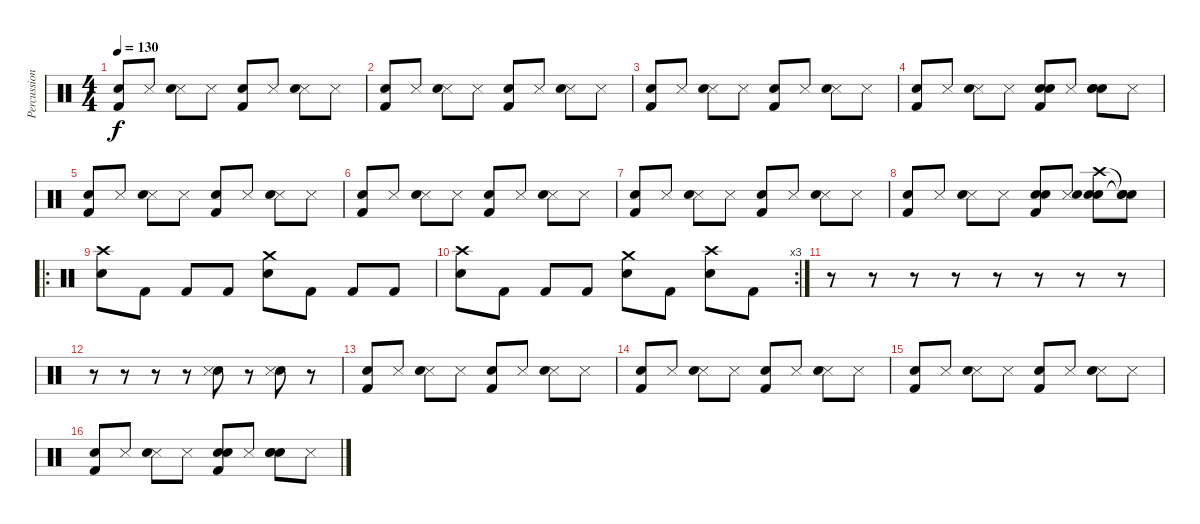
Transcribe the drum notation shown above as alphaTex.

\track ("Percussions" "Percussion") {instrument percussion}
\staff {score}
\articulation defaults
\ts (4 4)
\tempo 130
\clef neutral
\ks c
("Metronome (bell)" "Kick (hit) 2").8{dy f} "Snare (side stick) 3".8 ("Snare (side stick) 3" "Snare (hit) 2").8 "Snare (side stick) 3".8 ("Metronome (bell)" "Kick (hit) 2").8 "Snare (side stick) 3".8 ("Snare (side stick) 3" "Snare (hit) 2").8 "Snare (side stick) 3".8 |
("Metronome (bell)" "Kick (hit) 2").8 "Snare (side stick) 3".8 ("Snare (side stick) 3" "Snare (hit) 2").8 "Snare (side stick) 3".8 ("Metronome (bell)" "Kick (hit) 2").8 "Snare (side stick) 3".8 ("Snare (side stick) 3" "Snare (hit) 2").8 "Snare (side stick) 3".8 |
("Metronome (bell)" "Kick (hit) 2").8 "Snare (side stick) 3".8 ("Snare (side stick) 3" "Snare (hit) 2").8 "Snare (side stick) 3".8 ("Metronome (bell)" "Kick (hit) 2").8 "Snare (side stick) 3".8 ("Snare (side stick) 3" "Snare (hit) 2").8 "Snare (side stick) 3".8 |
("Metronome (bell)" "Kick (hit) 2").8 "Snare (side stick) 3".8 ("Snare (side stick) 3" "Snare (hit) 2").8 "Snare (side stick) 3".8 ("Metronome (bell)" "Metronome (bell)" "Kick (hit) 2").8 "Snare (side stick) 3".8 ("Metronome (bell)" "Metronome (bell)" "Snare (hit) 2").8 "Snare (side stick) 3".8 |
("Metronome (bell)" "Kick (hit) 2").8 "Snare (side stick) 3".8 ("Snare (side stick) 3" "Snare (hit) 2").8 "Snare (side stick) 3".8 ("Metronome (bell)" "Kick (hit) 2").8 "Snare (side stick) 3".8 ("Snare (side stick) 3" "Snare (hit) 2").8 "Snare (side stick) 3".8 |
("Metronome (bell)" "Kick (hit) 2").8 "Snare (side stick) 3".8 ("Snare (side stick) 3" "Snare (hit) 2").8 "Snare (side stick) 3".8 ("Metronome (bell)" "Kick (hit) 2").8 "Snare (side stick) 3".8 ("Snare (side stick) 3" "Snare (hit) 2").8 "Snare (side stick) 3".8 |
("Metronome (bell)" "Kick (hit) 2").8 "Snare (side stick) 3".8 ("Snare (side stick) 3" "Snare (hit) 2").8 "Snare (side stick) 3".8 ("Metronome (bell)" "Kick (hit) 2").8 "Snare (side stick) 3".8 ("Snare (side stick) 3" "Snare (hit) 2").8 "Snare (side stick) 3".8 |
("Metronome (bell)" "Kick (hit) 2").8 "Snare (side stick) 3".8 ("Snare (side stick) 3" "Snare (hit) 2").8 "Snare (side stick) 3".8 ("Metronome (bell)" "Metronome (bell)" "Kick (hit) 2").8 ("Snare (side stick) 3" "Snare (hit) 2").8 ("Crash high (hit)" "Metronome (bell)" "Snare (hit) 2").8 ("Snare (hit)"{t} "Snare (hit)"{t} "Snare (hit)"{t}).8 |
\ro
("Crash high (hit)" "Snare (hit) 2").8 "Kick (hit) 2".8 "Kick (hit) 2".8 "Kick (hit) 2".8 ("Crash medium (hit)" "Snare (hit) 2").8 "Kick (hit) 2".8 "Kick (hit) 2".8 "Kick (hit) 2".8 |
\rc 3
("Crash high (hit)" "Snare (hit) 2").8 "Kick (hit) 2".8 "Kick (hit) 2".8 "Kick (hit) 2".8 ("Crash medium (hit)" "Snare (hit) 2").8 "Kick (hit) 2".8 ("Crash high (hit)" "Snare (hit) 2").8 "Kick (hit) 2".8 |
r.8 r.8 r.8 r.8 r.8 r.8 r.8 r.8 |
r.8 r.8 r.8 r.8 ("Metronome (bell)" "Snare (side stick) 3").8 r.8 ("Metronome (bell)" "Snare (side stick) 3").8 r.8 |
("Metronome (bell)" "Kick (hit) 2").8 "Snare (side stick) 3".8 ("Snare (side stick) 3" "Snare (hit) 2").8 "Snare (side stick) 3".8 ("Metronome (bell)" "Kick (hit) 2").8 "Snare (side stick) 3".8 ("Snare (side stick) 3" "Snare (hit) 2").8 "Snare (side stick) 3".8 |
("Metronome (bell)" "Kick (hit) 2").8 "Snare (side stick) 3".8 ("Snare (side stick) 3" "Snare (hit) 2").8 "Snare (side stick) 3".8 ("Metronome (bell)" "Kick (hit) 2").8 "Snare (side stick) 3".8 ("Snare (side stick) 3" "Snare (hit) 2").8 "Snare (side stick) 3".8 |
("Metronome (bell)" "Kick (hit) 2").8 "Snare (side stick) 3".8 ("Snare (side stick) 3" "Snare (hit) 2").8 "Snare (side stick) 3".8 ("Metronome (bell)" "Kick (hit) 2").8 "Snare (side stick) 3".8 ("Snare (side stick) 3" "Snare (hit) 2").8 "Snare (side stick) 3".8 |
("Metronome (bell)" "Kick (hit) 2").8 "Snare (side stick) 3".8 ("Snare (side stick) 3" "Snare (hit) 2").8 "Snare (side stick) 3".8 ("Metronome (bell)" "Metronome (bell)" "Kick (hit) 2").8 "Snare (side stick) 3".8 ("Metronome (bell)" "Metronome (bell)" "Snare (hit) 2").8 "Snare (side stick) 3".8
